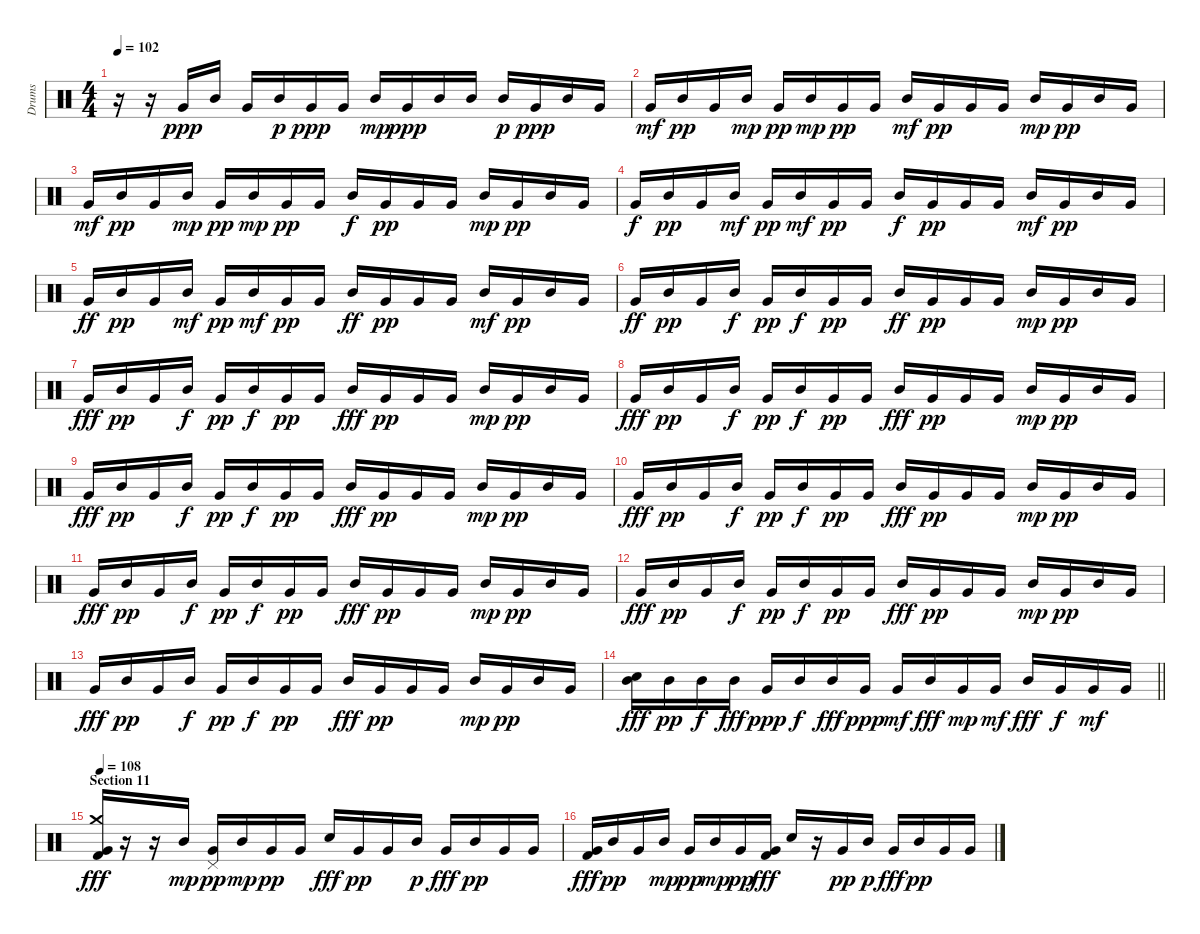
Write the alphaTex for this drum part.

\track ("Drums" "Drums") {instrument percussion}
\staff {score}
\articulation defaults
\ts (4 4)
\tempo 102
\clef neutral
\ks c
r.16{dy fff} r.16 "Very Low Tom (hit)".16{dy ppp} "Mid Tom (hit)".16 "Very Low Tom (hit)".16 "Mid Tom (hit)".16{dy p} "Very Low Tom (hit)".16{dy ppp} "Very Low Tom (hit)".16 "Mid Tom (hit)".16{dy mp} "Very Low Tom (hit)".16{dy ppp} "Mid Tom (hit)".16 "Mid Tom (hit)".16 "Mid Tom (hit)".16{dy p} "Very Low Tom (hit)".16{dy ppp} "Mid Tom (hit)".16 "Very Low Tom (hit)".16 |
"Very Low Tom (hit)".16{dy mf} "Mid Tom (hit)".16{dy pp} "Very Low Tom (hit)".16 "Mid Tom (hit)".16{dy mp} "Very Low Tom (hit)".16{dy pp} "Mid Tom (hit)".16{dy mp} "Very Low Tom (hit)".16{dy pp} "Very Low Tom (hit)".16 "Mid Tom (hit)".16{dy mf} "Very Low Tom (hit)".16{dy pp} "Very Low Tom (hit)".16 "Very Low Tom (hit)".16 "Mid Tom (hit)".16{dy mp} "Very Low Tom (hit)".16{dy pp} "Mid Tom (hit)".16 "Very Low Tom (hit)".16 |
"Very Low Tom (hit)".16{dy mf} "Mid Tom (hit)".16{dy pp} "Very Low Tom (hit)".16 "Mid Tom (hit)".16{dy mp} "Very Low Tom (hit)".16{dy pp} "Mid Tom (hit)".16{dy mp} "Very Low Tom (hit)".16{dy pp} "Very Low Tom (hit)".16 "Mid Tom (hit)".16{dy f} "Very Low Tom (hit)".16{dy pp} "Very Low Tom (hit)".16 "Very Low Tom (hit)".16 "Mid Tom (hit)".16{dy mp} "Very Low Tom (hit)".16{dy pp} "Mid Tom (hit)".16 "Very Low Tom (hit)".16 |
"Very Low Tom (hit)".16{dy f} "Mid Tom (hit)".16{dy pp} "Very Low Tom (hit)".16 "Mid Tom (hit)".16{dy mf} "Very Low Tom (hit)".16{dy pp} "Mid Tom (hit)".16{dy mf} "Very Low Tom (hit)".16{dy pp} "Very Low Tom (hit)".16 "Mid Tom (hit)".16{dy f} "Very Low Tom (hit)".16{dy pp} "Very Low Tom (hit)".16 "Very Low Tom (hit)".16 "Mid Tom (hit)".16{dy mf} "Very Low Tom (hit)".16{dy pp} "Mid Tom (hit)".16 "Very Low Tom (hit)".16 |
"Very Low Tom (hit)".16{dy ff} "Mid Tom (hit)".16{dy pp} "Very Low Tom (hit)".16 "Mid Tom (hit)".16{dy mf} "Very Low Tom (hit)".16{dy pp} "Mid Tom (hit)".16{dy mf} "Very Low Tom (hit)".16{dy pp} "Very Low Tom (hit)".16 "Mid Tom (hit)".16{dy ff} "Very Low Tom (hit)".16{dy pp} "Very Low Tom (hit)".16 "Very Low Tom (hit)".16 "Mid Tom (hit)".16{dy mf} "Very Low Tom (hit)".16{dy pp} "Mid Tom (hit)".16 "Very Low Tom (hit)".16 |
"Very Low Tom (hit)".16{dy ff} "Mid Tom (hit)".16{dy pp} "Very Low Tom (hit)".16 "Mid Tom (hit)".16{dy f} "Very Low Tom (hit)".16{dy pp} "Mid Tom (hit)".16{dy f} "Very Low Tom (hit)".16{dy pp} "Very Low Tom (hit)".16 "Mid Tom (hit)".16{dy ff} "Very Low Tom (hit)".16{dy pp} "Very Low Tom (hit)".16 "Very Low Tom (hit)".16 "Mid Tom (hit)".16{dy mp} "Very Low Tom (hit)".16{dy pp} "Mid Tom (hit)".16 "Very Low Tom (hit)".16 |
"Very Low Tom (hit)".16{dy fff} "Mid Tom (hit)".16{dy pp} "Very Low Tom (hit)".16 "Mid Tom (hit)".16{dy f} "Very Low Tom (hit)".16{dy pp} "Mid Tom (hit)".16{dy f} "Very Low Tom (hit)".16{dy pp} "Very Low Tom (hit)".16 "Mid Tom (hit)".16{dy fff} "Very Low Tom (hit)".16{dy pp} "Very Low Tom (hit)".16 "Very Low Tom (hit)".16 "Mid Tom (hit)".16{dy mp} "Very Low Tom (hit)".16{dy pp} "Mid Tom (hit)".16 "Very Low Tom (hit)".16 |
"Very Low Tom (hit)".16{dy fff} "Mid Tom (hit)".16{dy pp} "Very Low Tom (hit)".16 "Mid Tom (hit)".16{dy f} "Very Low Tom (hit)".16{dy pp} "Mid Tom (hit)".16{dy f} "Very Low Tom (hit)".16{dy pp} "Very Low Tom (hit)".16 "Mid Tom (hit)".16{dy fff} "Very Low Tom (hit)".16{dy pp} "Very Low Tom (hit)".16 "Very Low Tom (hit)".16 "Mid Tom (hit)".16{dy mp} "Very Low Tom (hit)".16{dy pp} "Mid Tom (hit)".16 "Very Low Tom (hit)".16 |
"Very Low Tom (hit)".16{dy fff} "Mid Tom (hit)".16{dy pp} "Very Low Tom (hit)".16 "Mid Tom (hit)".16{dy f} "Very Low Tom (hit)".16{dy pp} "Mid Tom (hit)".16{dy f} "Very Low Tom (hit)".16{dy pp} "Very Low Tom (hit)".16 "Mid Tom (hit)".16{dy fff} "Very Low Tom (hit)".16{dy pp} "Very Low Tom (hit)".16 "Very Low Tom (hit)".16 "Mid Tom (hit)".16{dy mp} "Very Low Tom (hit)".16{dy pp} "Mid Tom (hit)".16 "Very Low Tom (hit)".16 |
"Very Low Tom (hit)".16{dy fff} "Mid Tom (hit)".16{dy pp} "Very Low Tom (hit)".16 "Mid Tom (hit)".16{dy f} "Very Low Tom (hit)".16{dy pp} "Mid Tom (hit)".16{dy f} "Very Low Tom (hit)".16{dy pp} "Very Low Tom (hit)".16 "Mid Tom (hit)".16{dy fff} "Very Low Tom (hit)".16{dy pp} "Very Low Tom (hit)".16 "Very Low Tom (hit)".16 "Mid Tom (hit)".16{dy mp} "Very Low Tom (hit)".16{dy pp} "Mid Tom (hit)".16 "Very Low Tom (hit)".16 |
"Very Low Tom (hit)".16{dy fff} "Mid Tom (hit)".16{dy pp} "Very Low Tom (hit)".16 "Mid Tom (hit)".16{dy f} "Very Low Tom (hit)".16{dy pp} "Mid Tom (hit)".16{dy f} "Very Low Tom (hit)".16{dy pp} "Very Low Tom (hit)".16 "Mid Tom (hit)".16{dy fff} "Very Low Tom (hit)".16{dy pp} "Very Low Tom (hit)".16 "Very Low Tom (hit)".16 "Mid Tom (hit)".16{dy mp} "Very Low Tom (hit)".16{dy pp} "Mid Tom (hit)".16 "Very Low Tom (hit)".16 |
"Very Low Tom (hit)".16{dy fff} "Mid Tom (hit)".16{dy pp} "Very Low Tom (hit)".16 "Mid Tom (hit)".16{dy f} "Very Low Tom (hit)".16{dy pp} "Mid Tom (hit)".16{dy f} "Very Low Tom (hit)".16{dy pp} "Very Low Tom (hit)".16 "Mid Tom (hit)".16{dy fff} "Very Low Tom (hit)".16{dy pp} "Very Low Tom (hit)".16 "Very Low Tom (hit)".16 "Mid Tom (hit)".16{dy mp} "Very Low Tom (hit)".16{dy pp} "Mid Tom (hit)".16 "Very Low Tom (hit)".16 |
"Very Low Tom (hit)".16{dy fff} "Mid Tom (hit)".16{dy pp} "Very Low Tom (hit)".16 "Mid Tom (hit)".16{dy f} "Very Low Tom (hit)".16{dy pp} "Mid Tom (hit)".16{dy f} "Very Low Tom (hit)".16{dy pp} "Very Low Tom (hit)".16 "Mid Tom (hit)".16{dy fff} "Very Low Tom (hit)".16{dy pp} "Very Low Tom (hit)".16 "Very Low Tom (hit)".16 "Mid Tom (hit)".16{dy mp} "Very Low Tom (hit)".16{dy pp} "Mid Tom (hit)".16 "Very Low Tom (hit)".16 |
\barLineRight lightlight
("Electric Snare (hit)" "Mid Tom (hit)").16{dy fff} "Mid Tom (hit)".16{dy pp} "Mid Tom (hit)".16{dy f} "Mid Tom (hit)".16{dy fff} "Very Low Tom (hit)".16{dy ppp} "Mid Tom (hit)".16{dy f} "Mid Tom (hit)".16{dy fff} "Very Low Tom (hit)".16{dy ppp} "Very Low Tom (hit)".16{dy mf} "Mid Tom (hit)".16{dy fff} "Very Low Tom (hit)".16{dy mp} "Very Low Tom (hit)".16{dy mf} "Mid Tom (hit)".16{dy fff} "Very Low Tom (hit)".16{dy f} "Very Low Tom (hit)".16{dy mf} "Very Low Tom (hit)".16 |
\section ("" "Section 11")
\tempo 108
("Crash medium (hit)" "Very Low Tom (hit)" "Kick (hit) 2").16{dy fff} r.16 r.16 "Mid Tom (hit)".16{dy mp} ("Pedal Hi-Hat (hit)" "Very Low Tom (hit)").16{dy pp} "Mid Tom (hit)".16{dy mp} "Very Low Tom (hit)".16{dy pp} "Very Low Tom (hit)".16 "Electric Snare (hit)".16{dy fff} "Very Low Tom (hit)".16{dy pp} "Very Low Tom (hit)".16 "Mid Tom (hit)".16{dy p} "Very Low Tom (hit)".16{dy fff} "Mid Tom (hit)".16{dy pp} "Very Low Tom (hit)".16 "Very Low Tom (hit)".16 |
("Very Low Tom (hit)" "Kick (hit) 2").16{dy fff} "Mid Tom (hit)".16{dy pp} "Very Low Tom (hit)".16 "Mid Tom (hit)".16{dy mp} "Very Low Tom (hit)".16{dy pp} "Mid Tom (hit)".16{dy mp} "Very Low Tom (hit)".16{dy pp} ("Very Low Tom (hit)" "Kick (hit) 2").16{dy fff} "Electric Snare (hit)".16 r.16 "Very Low Tom (hit)".16{dy pp} "Mid Tom (hit)".16{dy p} "Very Low Tom (hit)".16{dy fff} "Mid Tom (hit)".16{dy pp} "Very Low Tom (hit)".16 "Very Low Tom (hit)".16
